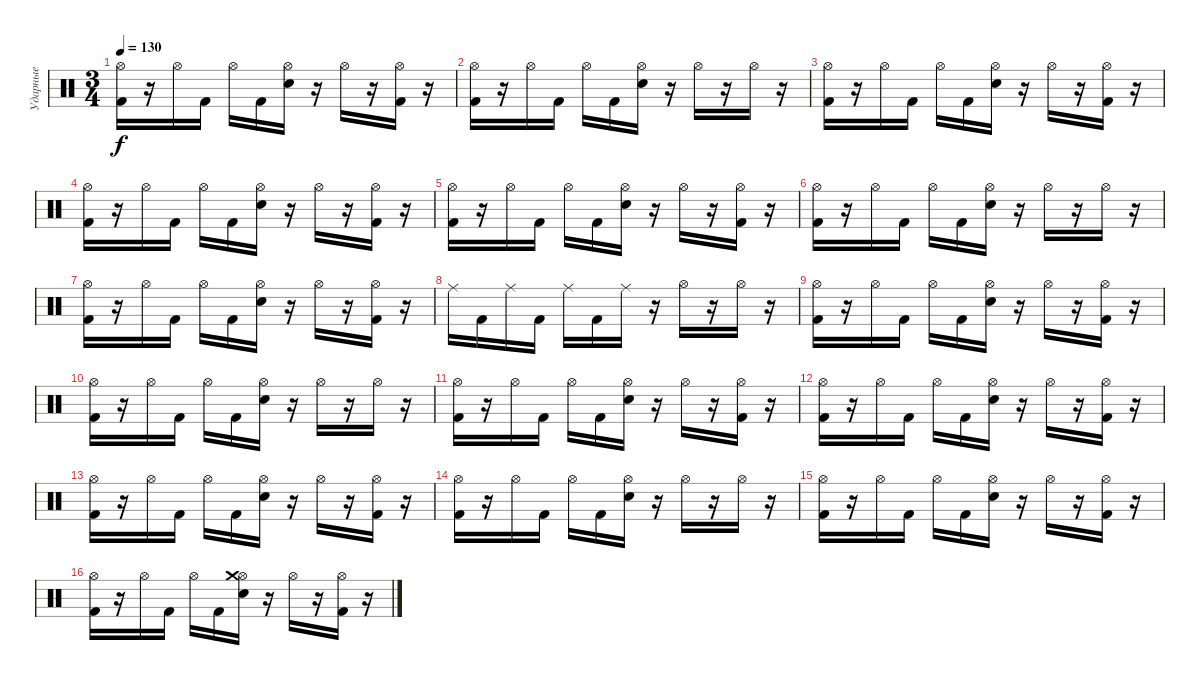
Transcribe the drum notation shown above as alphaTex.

\track ("Ударные" "Ударные") {instrument percussion}
\staff {score}
\articulation defaults
\ts (3 4)
\tempo 130
\clef neutral
\ks c
("Hi-Hat (open)" "Kick (hit) 2").16{dy f} r.16 "Hi-Hat (open)".16 "Kick (hit) 2".16 "Hi-Hat (open)".16 "Kick (hit) 2".16 ("Snare (hit) 2" "Hi-Hat (open)").16 r.16 "Hi-Hat (open)".16 r.16 ("Hi-Hat (open)" "Kick (hit) 2").16 r.16 |
("Hi-Hat (open)" "Kick (hit) 2").16 r.16 "Hi-Hat (open)".16 "Kick (hit) 2".16 "Hi-Hat (open)".16 "Kick (hit) 2".16 ("Snare (hit) 2" "Hi-Hat (open)").16 r.16 "Hi-Hat (open)".16 r.16 "Hi-Hat (open)".16 r.16 |
("Hi-Hat (open)" "Kick (hit) 2").16 r.16 "Hi-Hat (open)".16 "Kick (hit) 2".16 "Hi-Hat (open)".16 "Kick (hit) 2".16 ("Snare (hit) 2" "Hi-Hat (open)").16 r.16 "Hi-Hat (open)".16 r.16 ("Hi-Hat (open)" "Kick (hit) 2").16 r.16 |
("Hi-Hat (open)" "Kick (hit) 2").16 r.16 "Hi-Hat (open)".16 "Kick (hit) 2".16 "Hi-Hat (open)".16 "Kick (hit) 2".16 ("Snare (hit) 2" "Hi-Hat (open)").16 r.16 "Hi-Hat (open)".16 r.16 ("Hi-Hat (open)" "Kick (hit) 2").16 r.16 |
("Hi-Hat (open)" "Kick (hit) 2").16 r.16 "Hi-Hat (open)".16 "Kick (hit) 2".16 "Hi-Hat (open)".16 "Kick (hit) 2".16 ("Snare (hit) 2" "Hi-Hat (open)").16 r.16 "Hi-Hat (open)".16 r.16 ("Hi-Hat (open)" "Kick (hit) 2").16 r.16 |
("Hi-Hat (open)" "Kick (hit) 2").16 r.16 "Hi-Hat (open)".16 "Kick (hit) 2".16 "Hi-Hat (open)".16 "Kick (hit) 2".16 ("Snare (hit) 2" "Hi-Hat (open)").16 r.16 "Hi-Hat (open)".16 r.16 "Hi-Hat (open)".16 r.16 |
("Hi-Hat (open)" "Kick (hit) 2").16 r.16 "Hi-Hat (open)".16 "Kick (hit) 2".16 "Hi-Hat (open)".16 "Kick (hit) 2".16 ("Snare (hit) 2" "Hi-Hat (open)").16 r.16 "Hi-Hat (open)".16 r.16 ("Hi-Hat (open)" "Kick (hit) 2").16 r.16 |
"Ride (middle)".16 "Kick (hit) 2".16 "Ride (middle)".16 "Kick (hit) 2".16 "Ride (middle)".16 "Kick (hit) 2".16 "Ride (middle)".16 r.16 "Hi-Hat (open)".16 r.16 "Hi-Hat (open)".16 r.16 |
("Hi-Hat (open)" "Kick (hit) 2").16 r.16 "Hi-Hat (open)".16 "Kick (hit) 2".16 "Hi-Hat (open)".16 "Kick (hit) 2".16 ("Snare (hit) 2" "Hi-Hat (open)").16 r.16 "Hi-Hat (open)".16 r.16 ("Hi-Hat (open)" "Kick (hit) 2").16 r.16 |
("Hi-Hat (open)" "Kick (hit) 2").16 r.16 "Hi-Hat (open)".16 "Kick (hit) 2".16 "Hi-Hat (open)".16 "Kick (hit) 2".16 ("Snare (hit) 2" "Hi-Hat (open)").16 r.16 "Hi-Hat (open)".16 r.16 "Hi-Hat (open)".16 r.16 |
("Hi-Hat (open)" "Kick (hit) 2").16 r.16 "Hi-Hat (open)".16 "Kick (hit) 2".16 "Hi-Hat (open)".16 "Kick (hit) 2".16 ("Snare (hit) 2" "Hi-Hat (open)").16 r.16 "Hi-Hat (open)".16 r.16 ("Hi-Hat (open)" "Kick (hit) 2").16 r.16 |
("Hi-Hat (open)" "Kick (hit) 2").16 r.16 "Hi-Hat (open)".16 "Kick (hit) 2".16 "Hi-Hat (open)".16 "Kick (hit) 2".16 ("Snare (hit) 2" "Hi-Hat (open)").16 r.16 "Hi-Hat (open)".16 r.16 ("Hi-Hat (open)" "Kick (hit) 2").16 r.16 |
("Hi-Hat (open)" "Kick (hit) 2").16 r.16 "Hi-Hat (open)".16 "Kick (hit) 2".16 "Hi-Hat (open)".16 "Kick (hit) 2".16 ("Snare (hit) 2" "Hi-Hat (open)").16 r.16 "Hi-Hat (open)".16 r.16 ("Hi-Hat (open)" "Kick (hit) 2").16 r.16 |
("Hi-Hat (open)" "Kick (hit) 2").16 r.16 "Hi-Hat (open)".16 "Kick (hit) 2".16 "Hi-Hat (open)".16 "Kick (hit) 2".16 ("Snare (hit) 2" "Hi-Hat (open)").16 r.16 "Hi-Hat (open)".16 r.16 "Hi-Hat (open)".16 r.16 |
("Hi-Hat (open)" "Kick (hit) 2").16 r.16 "Hi-Hat (open)".16 "Kick (hit) 2".16 "Hi-Hat (open)".16 "Kick (hit) 2".16 ("Snare (hit) 2" "Hi-Hat (open)").16 r.16 "Hi-Hat (open)".16 r.16 ("Hi-Hat (open)" "Kick (hit) 2").16 r.16 |
("Hi-Hat (open)" "Kick (hit) 2").16 r.16 "Hi-Hat (open)".16 "Kick (hit) 2".16 "Hi-Hat (open)".16 "Kick (hit) 2".16 ("Snare (hit) 2" "Hi-Hat (open)" "Crash medium (hit)").16 r.16 "Hi-Hat (open)".16 r.16 ("Hi-Hat (open)" "Kick (hit) 2").16 r.16
